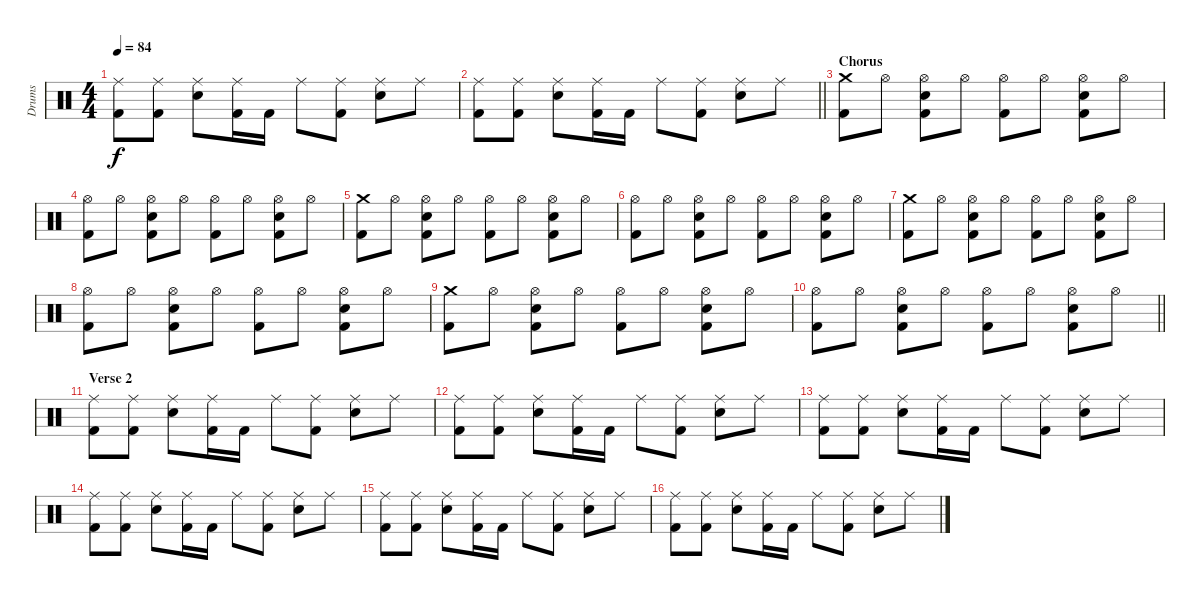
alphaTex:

\track ("Drums" "Drums") {instrument percussion}
\staff {score}
\articulation defaults
\ts (4 4)
\tempo 84
\clef neutral
\ks c
("Ride (middle)" "Kick (hit) 2").8{dy f} ("Ride (middle)" "Kick (hit) 2").8 ("Ride (middle)" "Electric Snare (hit)").8 ("Ride (middle)" "Kick (hit) 2").16 "Kick (hit) 2".16 "Ride (middle)".8 ("Ride (middle)" "Kick (hit) 2").8 ("Ride (middle)" "Electric Snare (hit)").8 "Ride (middle)".8 |
\barLineRight lightlight
("Ride (middle)" "Kick (hit) 2").8 ("Ride (middle)" "Kick (hit) 2").8 ("Ride (middle)" "Electric Snare (hit)").8 ("Ride (middle)" "Kick (hit) 2").16 "Kick (hit) 2".16 "Ride (middle)".8 ("Ride (middle)" "Kick (hit) 2").8 ("Ride (middle)" "Electric Snare (hit)").8 "Ride (middle)".8 |
\section ("" "Chorus")
("Crash medium (hit)" "Kick (hit) 2").8 "Hi-Hat (open)".8 ("Hi-Hat (open)" "Electric Snare (hit)" "Kick (hit) 2").8 "Hi-Hat (open)".8 ("Hi-Hat (open)" "Kick (hit) 2").8 "Hi-Hat (open)".8 ("Hi-Hat (open)" "Electric Snare (hit)" "Kick (hit) 2").8 "Hi-Hat (open)".8 |
("Hi-Hat (open)" "Kick (hit) 2").8 "Hi-Hat (open)".8 ("Hi-Hat (open)" "Electric Snare (hit)" "Kick (hit) 2").8 "Hi-Hat (open)".8 ("Hi-Hat (open)" "Kick (hit) 2").8 "Hi-Hat (open)".8 ("Hi-Hat (open)" "Electric Snare (hit)" "Kick (hit) 2").8 "Hi-Hat (open)".8 |
("Crash medium (hit)" "Kick (hit) 2").8 "Hi-Hat (open)".8 ("Hi-Hat (open)" "Electric Snare (hit)" "Kick (hit) 2").8 "Hi-Hat (open)".8 ("Hi-Hat (open)" "Kick (hit) 2").8 "Hi-Hat (open)".8 ("Hi-Hat (open)" "Electric Snare (hit)" "Kick (hit) 2").8 "Hi-Hat (open)".8 |
("Hi-Hat (open)" "Kick (hit) 2").8 "Hi-Hat (open)".8 ("Hi-Hat (open)" "Electric Snare (hit)" "Kick (hit) 2").8 "Hi-Hat (open)".8 ("Hi-Hat (open)" "Kick (hit) 2").8 "Hi-Hat (open)".8 ("Hi-Hat (open)" "Electric Snare (hit)" "Kick (hit) 2").8 "Hi-Hat (open)".8 |
("Crash medium (hit)" "Kick (hit) 2").8 "Hi-Hat (open)".8 ("Hi-Hat (open)" "Electric Snare (hit)" "Kick (hit) 2").8 "Hi-Hat (open)".8 ("Hi-Hat (open)" "Kick (hit) 2").8 "Hi-Hat (open)".8 ("Hi-Hat (open)" "Electric Snare (hit)" "Kick (hit) 2").8 "Hi-Hat (open)".8 |
("Hi-Hat (open)" "Kick (hit) 2").8 "Hi-Hat (open)".8 ("Hi-Hat (open)" "Electric Snare (hit)" "Kick (hit) 2").8 "Hi-Hat (open)".8 ("Hi-Hat (open)" "Kick (hit) 2").8 "Hi-Hat (open)".8 ("Hi-Hat (open)" "Electric Snare (hit)" "Kick (hit) 2").8 "Hi-Hat (open)".8 |
("Crash medium (hit)" "Kick (hit) 2").8 "Hi-Hat (open)".8 ("Hi-Hat (open)" "Electric Snare (hit)" "Kick (hit) 2").8 "Hi-Hat (open)".8 ("Hi-Hat (open)" "Kick (hit) 2").8 "Hi-Hat (open)".8 ("Hi-Hat (open)" "Electric Snare (hit)" "Kick (hit) 2").8 "Hi-Hat (open)".8 |
\barLineRight lightlight
("Hi-Hat (open)" "Kick (hit) 2").8 "Hi-Hat (open)".8 ("Hi-Hat (open)" "Electric Snare (hit)" "Kick (hit) 2").8 "Hi-Hat (open)".8 ("Hi-Hat (open)" "Kick (hit) 2").8 "Hi-Hat (open)".8 ("Hi-Hat (open)" "Electric Snare (hit)" "Kick (hit) 2").8 "Hi-Hat (open)".8 |
\section ("" "Verse 2")
("Ride (middle)" "Kick (hit) 2").8 ("Ride (middle)" "Kick (hit) 2").8 ("Ride (middle)" "Electric Snare (hit)").8 ("Ride (middle)" "Kick (hit) 2").16 "Kick (hit) 2".16 "Ride (middle)".8 ("Ride (middle)" "Kick (hit) 2").8 ("Ride (middle)" "Electric Snare (hit)").8 "Ride (middle)".8 |
("Ride (middle)" "Kick (hit) 2").8 ("Ride (middle)" "Kick (hit) 2").8 ("Ride (middle)" "Electric Snare (hit)").8 ("Ride (middle)" "Kick (hit) 2").16 "Kick (hit) 2".16 "Ride (middle)".8 ("Ride (middle)" "Kick (hit) 2").8 ("Ride (middle)" "Electric Snare (hit)").8 "Ride (middle)".8 |
("Ride (middle)" "Kick (hit) 2").8 ("Ride (middle)" "Kick (hit) 2").8 ("Ride (middle)" "Electric Snare (hit)").8 ("Ride (middle)" "Kick (hit) 2").16 "Kick (hit) 2".16 "Ride (middle)".8 ("Ride (middle)" "Kick (hit) 2").8 ("Ride (middle)" "Electric Snare (hit)").8 "Ride (middle)".8 |
("Ride (middle)" "Kick (hit) 2").8 ("Ride (middle)" "Kick (hit) 2").8 ("Ride (middle)" "Electric Snare (hit)").8 ("Ride (middle)" "Kick (hit) 2").16 "Kick (hit) 2".16 "Ride (middle)".8 ("Ride (middle)" "Kick (hit) 2").8 ("Ride (middle)" "Electric Snare (hit)").8 "Ride (middle)".8 |
("Ride (middle)" "Kick (hit) 2").8 ("Ride (middle)" "Kick (hit) 2").8 ("Ride (middle)" "Electric Snare (hit)").8 ("Ride (middle)" "Kick (hit) 2").16 "Kick (hit) 2".16 "Ride (middle)".8 ("Ride (middle)" "Kick (hit) 2").8 ("Ride (middle)" "Electric Snare (hit)").8 "Ride (middle)".8 |
("Ride (middle)" "Kick (hit) 2").8 ("Ride (middle)" "Kick (hit) 2").8 ("Ride (middle)" "Electric Snare (hit)").8 ("Ride (middle)" "Kick (hit) 2").16 "Kick (hit) 2".16 "Ride (middle)".8 ("Ride (middle)" "Kick (hit) 2").8 ("Ride (middle)" "Electric Snare (hit)").8 "Ride (middle)".8
